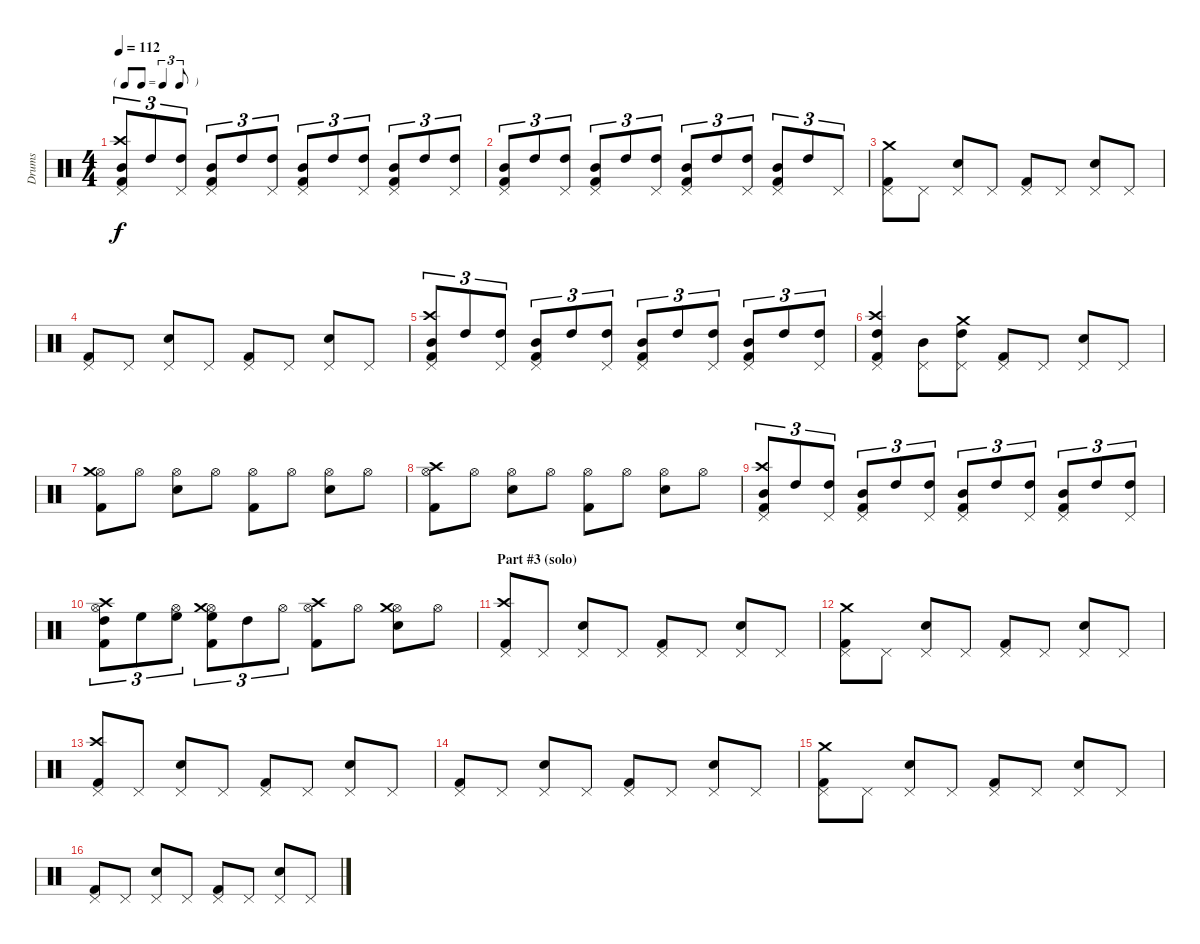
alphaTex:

\track ("Drums" "Drums") {instrument percussion}
\staff {score}
\articulation defaults
\ts (4 4)
\tf triplet8th
\tempo 112
\clef neutral
\ks c
("Pedal Hi-Hat (hit)" "Crash high (hit)" "Mid Tom (hit)" "Kick (hit) 2").8{tu (3 2) dy f} "High Tom (hit)".8{tu (3 2)} ("Pedal Hi-Hat (hit)" "High Tom (hit)").8{tu (3 2)} ("Pedal Hi-Hat (hit)" "Mid Tom (hit)" "Kick (hit) 2").8{tu (3 2)} "High Tom (hit)".8{tu (3 2)} ("Pedal Hi-Hat (hit)" "High Tom (hit)").8{tu (3 2)} ("Pedal Hi-Hat (hit)" "Mid Tom (hit)" "Kick (hit) 2").8{tu (3 2)} "High Tom (hit)".8{tu (3 2)} ("Pedal Hi-Hat (hit)" "High Tom (hit)").8{tu (3 2)} ("Pedal Hi-Hat (hit)" "Mid Tom (hit)" "Kick (hit) 2").8{tu (3 2)} "High Tom (hit)".8{tu (3 2)} ("Pedal Hi-Hat (hit)" "High Tom (hit)").8{tu (3 2)} |
("Pedal Hi-Hat (hit)" "Mid Tom (hit)" "Kick (hit) 2").8{tu (3 2)} "High Tom (hit)".8{tu (3 2)} ("Pedal Hi-Hat (hit)" "High Tom (hit)").8{tu (3 2)} ("Pedal Hi-Hat (hit)" "Mid Tom (hit)" "Kick (hit) 2").8{tu (3 2)} "High Tom (hit)".8{tu (3 2)} ("Pedal Hi-Hat (hit)" "High Tom (hit)").8{tu (3 2)} ("Pedal Hi-Hat (hit)" "Mid Tom (hit)" "Kick (hit) 2").8{tu (3 2)} "High Tom (hit)".8{tu (3 2)} ("Pedal Hi-Hat (hit)" "High Tom (hit)").8{tu (3 2)} ("Pedal Hi-Hat (hit)" "Mid Tom (hit)" "Kick (hit) 2").8{tu (3 2)} "High Tom (hit)".8{tu (3 2)} "Pedal Hi-Hat (hit)".8{tu (3 2)} |
("Pedal Hi-Hat (hit)" "Crash medium (hit)" "Kick (hit) 2").8 "Pedal Hi-Hat (hit)".8 ("Pedal Hi-Hat (hit)" "Snare (hit) 2").8 "Pedal Hi-Hat (hit)".8 ("Pedal Hi-Hat (hit)" "Kick (hit) 2").8 "Pedal Hi-Hat (hit)".8 ("Pedal Hi-Hat (hit)" "Snare (hit) 2").8 "Pedal Hi-Hat (hit)".8 |
("Pedal Hi-Hat (hit)" "Kick (hit) 2").8 "Pedal Hi-Hat (hit)".8 ("Pedal Hi-Hat (hit)" "Snare (hit) 2").8 "Pedal Hi-Hat (hit)".8 ("Pedal Hi-Hat (hit)" "Kick (hit) 2").8 "Pedal Hi-Hat (hit)".8 ("Pedal Hi-Hat (hit)" "Snare (hit) 2").8 "Pedal Hi-Hat (hit)".8 |
("Pedal Hi-Hat (hit)" "Crash high (hit)" "Mid Tom (hit)" "Kick (hit) 2").8{tu (3 2)} "High Tom (hit)".8{tu (3 2)} ("Pedal Hi-Hat (hit)" "High Tom (hit)").8{tu (3 2)} ("Pedal Hi-Hat (hit)" "Mid Tom (hit)" "Kick (hit) 2").8{tu (3 2)} "High Tom (hit)".8{tu (3 2)} ("Pedal Hi-Hat (hit)" "High Tom (hit)").8{tu (3 2)} ("Pedal Hi-Hat (hit)" "Mid Tom (hit)" "Kick (hit) 2").8{tu (3 2)} "High Tom (hit)".8{tu (3 2)} ("Pedal Hi-Hat (hit)" "High Tom (hit)").8{tu (3 2)} ("Pedal Hi-Hat (hit)" "Mid Tom (hit)" "Kick (hit) 2").8{tu (3 2)} "High Tom (hit)".8{tu (3 2)} ("Pedal Hi-Hat (hit)" "High Tom (hit)").8{tu (3 2)} |
("Pedal Hi-Hat (hit)" "Crash high (hit)" "High Tom (hit)" "Kick (hit) 2").4 ("Pedal Hi-Hat (hit)" "Mid Tom (hit)").8 ("Pedal Hi-Hat (hit)" "Crash medium (hit)" "High Tom (hit)").8 ("Pedal Hi-Hat (hit)" "Kick (hit) 2").8 "Pedal Hi-Hat (hit)".8 ("Pedal Hi-Hat (hit)" "Snare (hit) 2").8 "Pedal Hi-Hat (hit)".8 |
("Hi-Hat (open)" "Crash medium (hit)" "Kick (hit) 2").8 "Hi-Hat (open)".8 ("Hi-Hat (open)" "Snare (hit) 2").8 "Hi-Hat (open)".8 ("Hi-Hat (open)" "Kick (hit) 2").8 "Hi-Hat (open)".8 ("Hi-Hat (open)" "Snare (hit) 2").8 "Hi-Hat (open)".8 |
("Hi-Hat (open)" "Crash high (hit)" "Kick (hit) 2").8 "Hi-Hat (open)".8 ("Hi-Hat (open)" "Snare (hit) 2").8 "Hi-Hat (open)".8 ("Hi-Hat (open)" "Kick (hit) 2").8 "Hi-Hat (open)".8 ("Hi-Hat (open)" "Snare (hit) 2").8 "Hi-Hat (open)".8 |
("Pedal Hi-Hat (hit)" "Crash high (hit)" "Mid Tom (hit)" "Kick (hit) 2").8{tu (3 2)} "High Tom (hit)".8{tu (3 2)} ("Pedal Hi-Hat (hit)" "High Tom (hit)").8{tu (3 2)} ("Pedal Hi-Hat (hit)" "Mid Tom (hit)" "Kick (hit) 2").8{tu (3 2)} "High Tom (hit)".8{tu (3 2)} ("Pedal Hi-Hat (hit)" "High Tom (hit)").8{tu (3 2)} ("Pedal Hi-Hat (hit)" "Mid Tom (hit)" "Kick (hit) 2").8{tu (3 2)} "High Tom (hit)".8{tu (3 2)} ("Pedal Hi-Hat (hit)" "High Tom (hit)").8{tu (3 2)} ("Pedal Hi-Hat (hit)" "Mid Tom (hit)" "Kick (hit) 2").8{tu (3 2)} "High Tom (hit)".8{tu (3 2)} ("Pedal Hi-Hat (hit)" "High Tom (hit)").8{tu (3 2)} |
("Hi-Hat (open)" "Crash high (hit)" "High Tom (hit)" "Kick (hit) 2").8{tu (3 2)} "High Floor Tom (hit)".8{tu (3 2)} ("Hi-Hat (open)" "High Floor Tom (hit)").8{tu (3 2)} ("Hi-Hat (open)" "Crash medium (hit)" "High Floor Tom (hit)" "Kick (hit) 2").8{tu (3 2)} "High Tom (hit)".8{tu (3 2)} "Hi-Hat (open)".8{tu (3 2)} ("Hi-Hat (open)" "Crash high (hit)" "Kick (hit) 2").8 "Hi-Hat (open)".8 ("Hi-Hat (open)" "Crash medium (hit)" "Snare (hit) 2").8 "Hi-Hat (open)".8 |
\section ("" "Part #3 (solo)")
("Pedal Hi-Hat (hit)" "Crash high (hit)" "Kick (hit) 2").8 "Pedal Hi-Hat (hit)".8 ("Pedal Hi-Hat (hit)" "Snare (hit) 2").8 "Pedal Hi-Hat (hit)".8 ("Pedal Hi-Hat (hit)" "Kick (hit) 2").8 "Pedal Hi-Hat (hit)".8 ("Pedal Hi-Hat (hit)" "Snare (hit) 2").8 "Pedal Hi-Hat (hit)".8 |
("Pedal Hi-Hat (hit)" "Crash medium (hit)" "Kick (hit) 2").8 "Pedal Hi-Hat (hit)".8 ("Pedal Hi-Hat (hit)" "Snare (hit) 2").8 "Pedal Hi-Hat (hit)".8 ("Pedal Hi-Hat (hit)" "Kick (hit) 2").8 "Pedal Hi-Hat (hit)".8 ("Pedal Hi-Hat (hit)" "Snare (hit) 2").8 "Pedal Hi-Hat (hit)".8 |
("Pedal Hi-Hat (hit)" "Crash high (hit)" "Kick (hit) 2").8 "Pedal Hi-Hat (hit)".8 ("Pedal Hi-Hat (hit)" "Snare (hit) 2").8 "Pedal Hi-Hat (hit)".8 ("Pedal Hi-Hat (hit)" "Kick (hit) 2").8 "Pedal Hi-Hat (hit)".8 ("Pedal Hi-Hat (hit)" "Snare (hit) 2").8 "Pedal Hi-Hat (hit)".8 |
("Pedal Hi-Hat (hit)" "Kick (hit) 2").8 "Pedal Hi-Hat (hit)".8 ("Pedal Hi-Hat (hit)" "Snare (hit) 2").8 "Pedal Hi-Hat (hit)".8 ("Pedal Hi-Hat (hit)" "Kick (hit) 2").8 "Pedal Hi-Hat (hit)".8 ("Pedal Hi-Hat (hit)" "Snare (hit) 2").8 "Pedal Hi-Hat (hit)".8 |
("Pedal Hi-Hat (hit)" "Crash medium (hit)" "Kick (hit) 2").8 "Pedal Hi-Hat (hit)".8 ("Pedal Hi-Hat (hit)" "Snare (hit) 2").8 "Pedal Hi-Hat (hit)".8 ("Pedal Hi-Hat (hit)" "Kick (hit) 2").8 "Pedal Hi-Hat (hit)".8 ("Pedal Hi-Hat (hit)" "Snare (hit) 2").8 "Pedal Hi-Hat (hit)".8 |
("Pedal Hi-Hat (hit)" "Kick (hit) 2").8 "Pedal Hi-Hat (hit)".8 ("Pedal Hi-Hat (hit)" "Snare (hit) 2").8 "Pedal Hi-Hat (hit)".8 ("Pedal Hi-Hat (hit)" "Kick (hit) 2").8 "Pedal Hi-Hat (hit)".8 ("Pedal Hi-Hat (hit)" "Snare (hit) 2").8 "Pedal Hi-Hat (hit)".8
